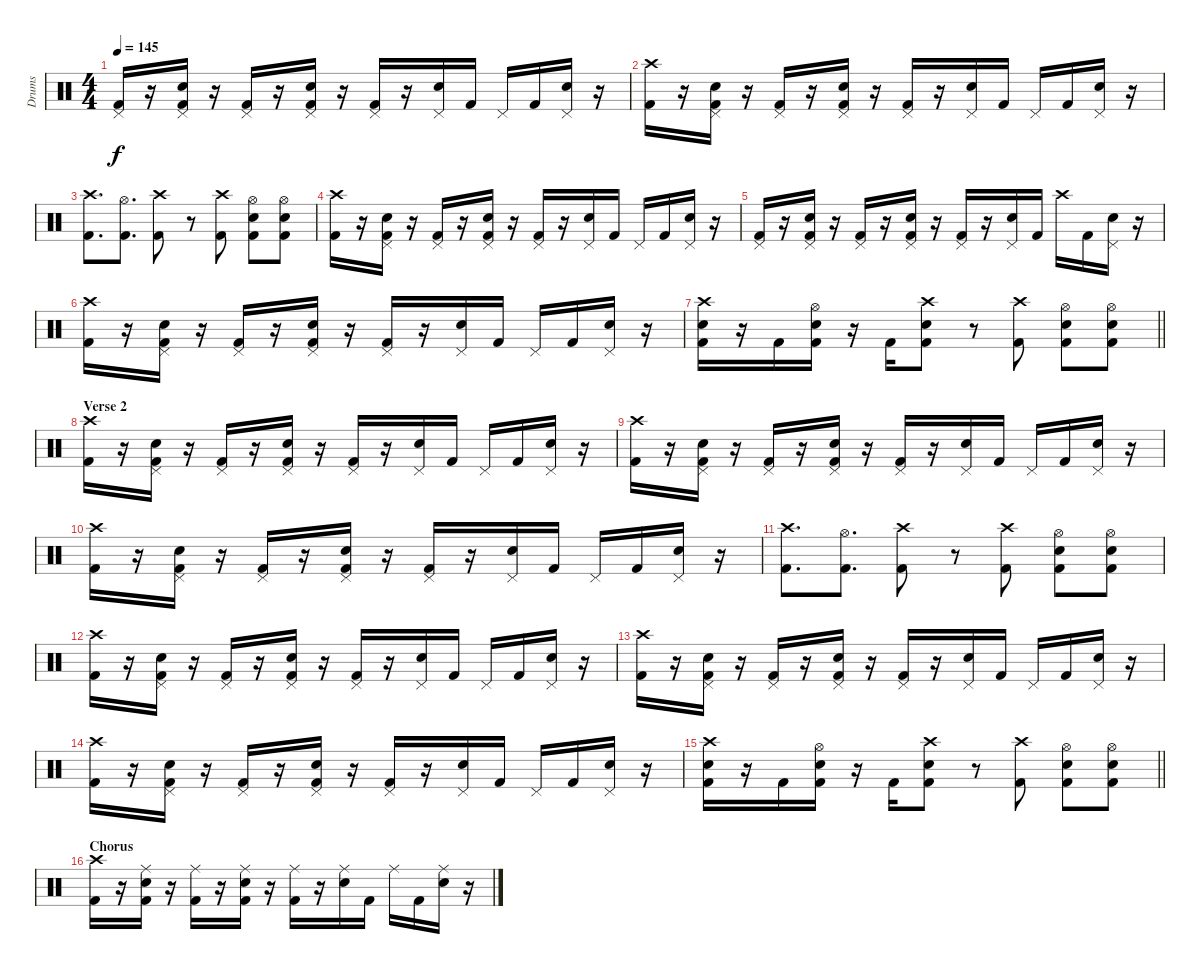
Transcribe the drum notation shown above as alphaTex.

\track ("Drums" "Drums") {instrument percussion}
\staff {score}
\articulation defaults
\ts (4 4)
\tempo 145
\clef neutral
\ks c
("Pedal Hi-Hat (hit)" "Kick (hit) 2").16{dy f} r.16 ("Pedal Hi-Hat (hit)" "Snare (hit) 2" "Kick (hit) 2").16 r.16 ("Pedal Hi-Hat (hit)" "Kick (hit) 2").16 r.16 ("Pedal Hi-Hat (hit)" "Snare (hit) 2" "Kick (hit) 2").16 r.16 ("Pedal Hi-Hat (hit)" "Kick (hit) 2").16 r.16 ("Pedal Hi-Hat (hit)" "Snare (hit) 2").16 "Kick (hit) 2".16 "Pedal Hi-Hat (hit)".16 "Kick (hit) 2".16 ("Pedal Hi-Hat (hit)" "Snare (hit) 2").16 r.16 |
("Crash high (hit)" "Kick (hit) 2").16 r.16 ("Pedal Hi-Hat (hit)" "Snare (hit) 2" "Kick (hit) 2").16 r.16 ("Pedal Hi-Hat (hit)" "Kick (hit) 2").16 r.16 ("Pedal Hi-Hat (hit)" "Snare (hit) 2" "Kick (hit) 2").16 r.16 ("Pedal Hi-Hat (hit)" "Kick (hit) 2").16 r.16 ("Pedal Hi-Hat (hit)" "Snare (hit) 2").16 "Kick (hit) 2".16 "Pedal Hi-Hat (hit)".16 "Kick (hit) 2".16 ("Pedal Hi-Hat (hit)" "Snare (hit) 2").16 r.16 |
("Crash high (hit)" "Kick (hit) 2").8{d} ("Hi-Hat (open)" "Kick (hit) 2").8{d} ("Crash high (hit)" "Kick (hit) 2").8 r.8 ("Crash high (hit)" "Kick (hit) 2").8 ("Hi-Hat (open)" "Snare (hit) 2" "Kick (hit) 2").8 ("Hi-Hat (open)" "Snare (hit) 2" "Kick (hit) 2").8 |
("Crash high (hit)" "Kick (hit) 2").16 r.16 ("Pedal Hi-Hat (hit)" "Snare (hit) 2" "Kick (hit) 2").16 r.16 ("Pedal Hi-Hat (hit)" "Kick (hit) 2").16 r.16 ("Pedal Hi-Hat (hit)" "Snare (hit) 2" "Kick (hit) 2").16 r.16 ("Pedal Hi-Hat (hit)" "Kick (hit) 2").16 r.16 ("Pedal Hi-Hat (hit)" "Snare (hit) 2").16 "Kick (hit) 2".16 "Pedal Hi-Hat (hit)".16 "Kick (hit) 2".16 ("Pedal Hi-Hat (hit)" "Snare (hit) 2").16 r.16 |
("Pedal Hi-Hat (hit)" "Kick (hit) 2").16 r.16 ("Pedal Hi-Hat (hit)" "Snare (hit) 2" "Kick (hit) 2").16 r.16 ("Pedal Hi-Hat (hit)" "Kick (hit) 2").16 r.16 ("Pedal Hi-Hat (hit)" "Snare (hit) 2" "Kick (hit) 2").16 r.16 ("Pedal Hi-Hat (hit)" "Kick (hit) 2").16 r.16 ("Pedal Hi-Hat (hit)" "Snare (hit) 2").16 "Kick (hit) 2".16 "Crash high (hit)".16 "Kick (hit) 2".16 ("Pedal Hi-Hat (hit)" "Snare (hit) 2").16 r.16 |
("Crash high (hit)" "Kick (hit) 2").16 r.16 ("Pedal Hi-Hat (hit)" "Snare (hit) 2" "Kick (hit) 2").16 r.16 ("Pedal Hi-Hat (hit)" "Kick (hit) 2").16 r.16 ("Pedal Hi-Hat (hit)" "Snare (hit) 2" "Kick (hit) 2").16 r.16 ("Pedal Hi-Hat (hit)" "Kick (hit) 2").16 r.16 ("Pedal Hi-Hat (hit)" "Snare (hit) 2").16 "Kick (hit) 2".16 "Pedal Hi-Hat (hit)".16 "Kick (hit) 2".16 ("Pedal Hi-Hat (hit)" "Snare (hit) 2").16 r.16 |
\barLineRight lightlight
("Crash high (hit)" "Snare (hit) 2" "Kick (hit) 2").16 r.16 "Kick (hit) 2".16 ("Hi-Hat (open)" "Snare (hit) 2" "Kick (hit) 2").16 r.16 "Kick (hit) 2".16 ("Crash high (hit)" "Snare (hit) 2" "Kick (hit) 2").8 r.8 ("Crash high (hit)" "Kick (hit) 2").8 ("Hi-Hat (open)" "Snare (hit) 2" "Kick (hit) 2").8 ("Hi-Hat (open)" "Snare (hit) 2" "Kick (hit) 2").8 |
\section ("" "Verse 2")
("Crash high (hit)" "Kick (hit) 2").16 r.16 ("Pedal Hi-Hat (hit)" "Snare (hit) 2" "Kick (hit) 2").16 r.16 ("Pedal Hi-Hat (hit)" "Kick (hit) 2").16 r.16 ("Pedal Hi-Hat (hit)" "Snare (hit) 2" "Kick (hit) 2").16 r.16 ("Pedal Hi-Hat (hit)" "Kick (hit) 2").16 r.16 ("Pedal Hi-Hat (hit)" "Snare (hit) 2").16 "Kick (hit) 2".16 "Pedal Hi-Hat (hit)".16 "Kick (hit) 2".16 ("Pedal Hi-Hat (hit)" "Snare (hit) 2").16 r.16 |
("Crash high (hit)" "Kick (hit) 2").16 r.16 ("Pedal Hi-Hat (hit)" "Snare (hit) 2" "Kick (hit) 2").16 r.16 ("Pedal Hi-Hat (hit)" "Kick (hit) 2").16 r.16 ("Pedal Hi-Hat (hit)" "Snare (hit) 2" "Kick (hit) 2").16 r.16 ("Pedal Hi-Hat (hit)" "Kick (hit) 2").16 r.16 ("Pedal Hi-Hat (hit)" "Snare (hit) 2").16 "Kick (hit) 2".16 "Pedal Hi-Hat (hit)".16 "Kick (hit) 2".16 ("Pedal Hi-Hat (hit)" "Snare (hit) 2").16 r.16 |
("Crash high (hit)" "Kick (hit) 2").16 r.16 ("Pedal Hi-Hat (hit)" "Snare (hit) 2" "Kick (hit) 2").16 r.16 ("Pedal Hi-Hat (hit)" "Kick (hit) 2").16 r.16 ("Pedal Hi-Hat (hit)" "Snare (hit) 2" "Kick (hit) 2").16 r.16 ("Pedal Hi-Hat (hit)" "Kick (hit) 2").16 r.16 ("Pedal Hi-Hat (hit)" "Snare (hit) 2").16 "Kick (hit) 2".16 "Pedal Hi-Hat (hit)".16 "Kick (hit) 2".16 ("Pedal Hi-Hat (hit)" "Snare (hit) 2").16 r.16 |
("Crash high (hit)" "Kick (hit) 2").8{d} ("Hi-Hat (open)" "Kick (hit) 2").8{d} ("Crash high (hit)" "Kick (hit) 2").8 r.8 ("Crash high (hit)" "Kick (hit) 2").8 ("Hi-Hat (open)" "Snare (hit) 2" "Kick (hit) 2").8 ("Hi-Hat (open)" "Snare (hit) 2" "Kick (hit) 2").8 |
("Crash high (hit)" "Kick (hit) 2").16 r.16 ("Pedal Hi-Hat (hit)" "Snare (hit) 2" "Kick (hit) 2").16 r.16 ("Pedal Hi-Hat (hit)" "Kick (hit) 2").16 r.16 ("Pedal Hi-Hat (hit)" "Snare (hit) 2" "Kick (hit) 2").16 r.16 ("Pedal Hi-Hat (hit)" "Kick (hit) 2").16 r.16 ("Pedal Hi-Hat (hit)" "Snare (hit) 2").16 "Kick (hit) 2".16 "Pedal Hi-Hat (hit)".16 "Kick (hit) 2".16 ("Pedal Hi-Hat (hit)" "Snare (hit) 2").16 r.16 |
("Crash high (hit)" "Kick (hit) 2").16 r.16 ("Pedal Hi-Hat (hit)" "Snare (hit) 2" "Kick (hit) 2").16 r.16 ("Pedal Hi-Hat (hit)" "Kick (hit) 2").16 r.16 ("Pedal Hi-Hat (hit)" "Snare (hit) 2" "Kick (hit) 2").16 r.16 ("Pedal Hi-Hat (hit)" "Kick (hit) 2").16 r.16 ("Pedal Hi-Hat (hit)" "Snare (hit) 2").16 "Kick (hit) 2".16 "Pedal Hi-Hat (hit)".16 "Kick (hit) 2".16 ("Pedal Hi-Hat (hit)" "Snare (hit) 2").16 r.16 |
("Crash high (hit)" "Kick (hit) 2").16 r.16 ("Pedal Hi-Hat (hit)" "Snare (hit) 2" "Kick (hit) 2").16 r.16 ("Pedal Hi-Hat (hit)" "Kick (hit) 2").16 r.16 ("Pedal Hi-Hat (hit)" "Snare (hit) 2" "Kick (hit) 2").16 r.16 ("Pedal Hi-Hat (hit)" "Kick (hit) 2").16 r.16 ("Pedal Hi-Hat (hit)" "Snare (hit) 2").16 "Kick (hit) 2".16 "Pedal Hi-Hat (hit)".16 "Kick (hit) 2".16 ("Pedal Hi-Hat (hit)" "Snare (hit) 2").16 r.16 |
\barLineRight lightlight
("Crash high (hit)" "Snare (hit) 2" "Kick (hit) 2").16 r.16 "Kick (hit) 2".16 ("Hi-Hat (open)" "Snare (hit) 2" "Kick (hit) 2").16 r.16 "Kick (hit) 2".16 ("Crash high (hit)" "Snare (hit) 2" "Kick (hit) 2").8 r.8 ("Crash high (hit)" "Kick (hit) 2").8 ("Hi-Hat (open)" "Snare (hit) 2" "Kick (hit) 2").8 ("Hi-Hat (open)" "Snare (hit) 2" "Kick (hit) 2").8 |
\section ("" "Chorus")
("Crash high (hit)" "Kick (hit) 2").16 r.16 ("Ride (middle)" "Snare (hit) 2" "Kick (hit) 2").16 r.16 ("Ride (middle)" "Kick (hit) 2").16 r.16 ("Ride (middle)" "Snare (hit) 2" "Kick (hit) 2").16 r.16 ("Ride (middle)" "Kick (hit) 2").16 r.16 ("Ride (middle)" "Snare (hit) 2").16 "Kick (hit) 2".16 "Ride (middle)".16 "Kick (hit) 2".16 ("Ride (middle)" "Snare (hit) 2").16 r.16
